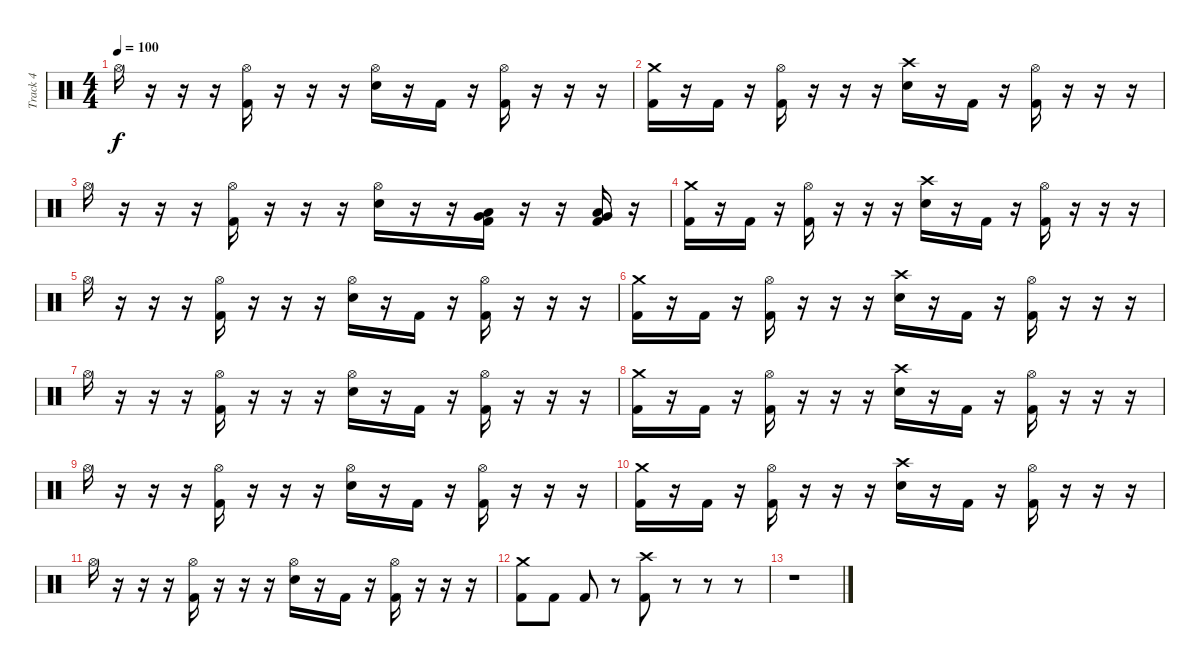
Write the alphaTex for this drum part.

\track ("Track 4" "Track 4") {instrument percussion}
\staff {score}
\articulation defaults
\ts (4 4)
\tempo 100
\clef neutral
\ks c "Hi-Hat (open)".16{dy f}
r.16 r.16 r.16 ("Hi-Hat (open)" "Kick (hit) 2").16 r.16 r.16 r.16 ("Hi-Hat (open)" "Electric Snare (hit)").16 r.16 "Kick (hit) 2".16 r.16 ("Hi-Hat (open)" "Kick (hit) 2").16 r.16 r.16 r.16 |
("Crash medium (hit)" "Kick (hit) 2").16 r.16 "Kick (hit) 2".16 r.16 ("Hi-Hat (open)" "Kick (hit) 2").16 r.16 r.16 r.16 ("Crash high (hit)" "Electric Snare (hit)").16 r.16 "Kick (hit) 2".16 r.16 ("Hi-Hat (open)" "Kick (hit) 2").16 r.16 r.16 r.16 |
"Hi-Hat (open)".16 r.16 r.16 r.16 ("Hi-Hat (open)" "Kick (hit) 2").16 r.16 r.16 r.16 ("Hi-Hat (open)" "Electric Snare (hit)").16 r.16 r.16 ("Very Low Tom (hit)" "Low Tom (hit)" "Kick (hit) 2").16 r.16 r.16 ("Low Floor Tom (hit)" "Very Low Tom (hit)" "Kick (hit) 2").16 r.16 |
("Crash medium (hit)" "Kick (hit) 2").16 r.16 "Kick (hit) 2".16 r.16 ("Hi-Hat (open)" "Kick (hit) 2").16 r.16 r.16 r.16 ("Crash high (hit)" "Electric Snare (hit)").16 r.16 "Kick (hit) 2".16 r.16 ("Hi-Hat (open)" "Kick (hit) 2").16 r.16 r.16 r.16 |
"Hi-Hat (open)".16 r.16 r.16 r.16 ("Hi-Hat (open)" "Kick (hit) 2").16 r.16 r.16 r.16 ("Hi-Hat (open)" "Electric Snare (hit)").16 r.16 "Kick (hit) 2".16 r.16 ("Hi-Hat (open)" "Kick (hit) 2").16 r.16 r.16 r.16 |
("Crash medium (hit)" "Kick (hit) 2").16 r.16 "Kick (hit) 2".16 r.16 ("Hi-Hat (open)" "Kick (hit) 2").16 r.16 r.16 r.16 ("Crash high (hit)" "Electric Snare (hit)").16 r.16 "Kick (hit) 2".16 r.16 ("Hi-Hat (open)" "Kick (hit) 2").16 r.16 r.16 r.16 |
"Hi-Hat (open)".16 r.16 r.16 r.16 ("Hi-Hat (open)" "Kick (hit) 2").16 r.16 r.16 r.16 ("Hi-Hat (open)" "Electric Snare (hit)").16 r.16 "Kick (hit) 2".16 r.16 ("Hi-Hat (open)" "Kick (hit) 2").16 r.16 r.16 r.16 |
("Crash medium (hit)" "Kick (hit) 2").16 r.16 "Kick (hit) 2".16 r.16 ("Hi-Hat (open)" "Kick (hit) 2").16 r.16 r.16 r.16 ("Crash high (hit)" "Electric Snare (hit)").16 r.16 "Kick (hit) 2".16 r.16 ("Hi-Hat (open)" "Kick (hit) 2").16 r.16 r.16 r.16 |
"Hi-Hat (open)".16 r.16 r.16 r.16 ("Hi-Hat (open)" "Kick (hit) 2").16 r.16 r.16 r.16 ("Hi-Hat (open)" "Electric Snare (hit)").16 r.16 "Kick (hit) 2".16 r.16 ("Hi-Hat (open)" "Kick (hit) 2").16 r.16 r.16 r.16 |
("Crash medium (hit)" "Kick (hit) 2").16 r.16 "Kick (hit) 2".16 r.16 ("Hi-Hat (open)" "Kick (hit) 2").16 r.16 r.16 r.16 ("Crash high (hit)" "Electric Snare (hit)").16 r.16 "Kick (hit) 2".16 r.16 ("Hi-Hat (open)" "Kick (hit) 2").16 r.16 r.16 r.16 |
"Hi-Hat (open)".16 r.16 r.16 r.16 ("Hi-Hat (open)" "Kick (hit) 2").16 r.16 r.16 r.16 ("Hi-Hat (open)" "Electric Snare (hit)").16 r.16 "Kick (hit) 2".16 r.16 ("Hi-Hat (open)" "Kick (hit) 2").16 r.16 r.16 r.16 |
("Crash medium (hit)" "Kick (hit) 2").8 "Kick (hit) 2".8 "Kick (hit) 2".8 r.8 ("Crash high (hit)" "Kick (hit) 2").8 r.8 r.8 r.8 |
r.1
